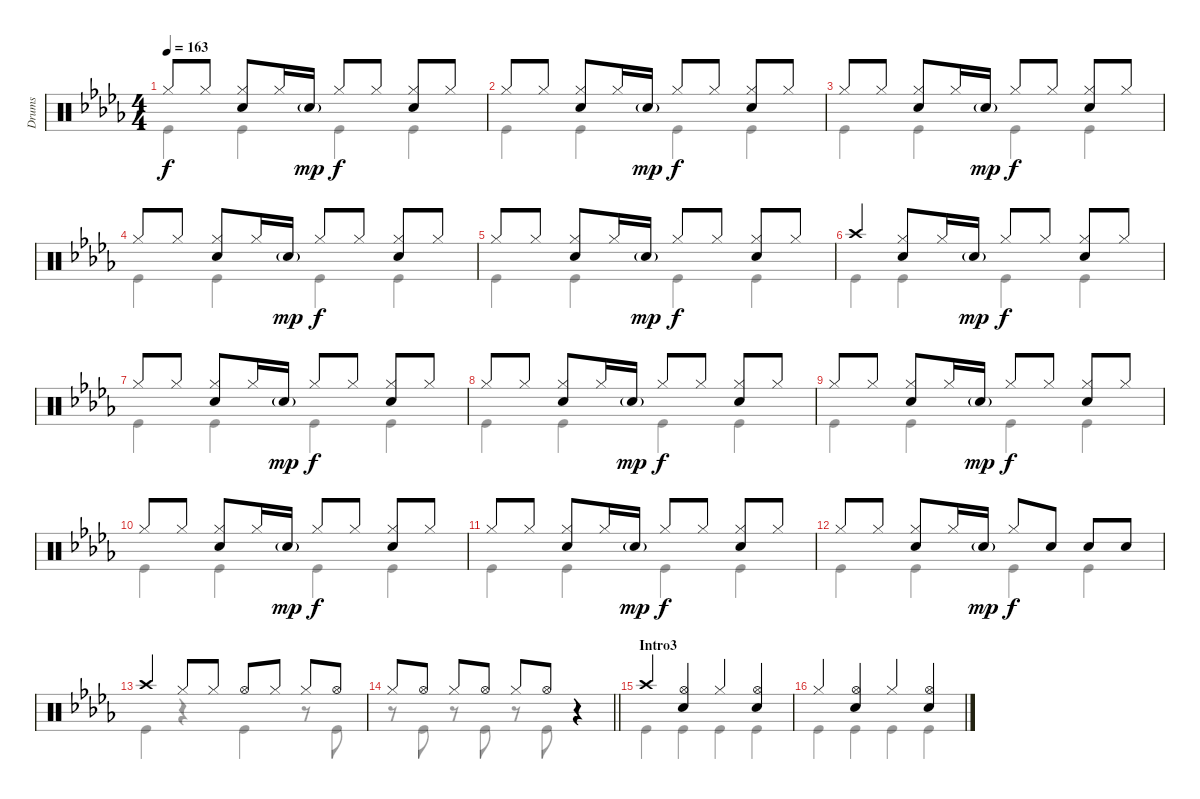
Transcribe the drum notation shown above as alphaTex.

\track ("Drums" "Drums") {instrument percussion}
\staff {score}
\articulation defaults
\voice
\ts (4 4)
\tempo 163
\clef neutral
\ks db "Hi-Hat (closed)".8{dy f} "Hi-Hat (closed)".8
("Hi-Hat (closed)" "Snare (hit) 2").8 "Hi-Hat (closed)".16 "Snare (hit) 2"{g}.16{dy mp} "Hi-Hat (closed)".8{dy f} "Hi-Hat (closed)".8 ("Hi-Hat (closed)" "Snare (hit) 2").8 "Hi-Hat (closed)".8 |
"Hi-Hat (closed)".8 "Hi-Hat (closed)".8 ("Hi-Hat (closed)" "Snare (hit) 2").8 "Hi-Hat (closed)".16 "Snare (hit) 2"{g}.16{dy mp} "Hi-Hat (closed)".8{dy f} "Hi-Hat (closed)".8 ("Hi-Hat (closed)" "Snare (hit) 2").8 "Hi-Hat (closed)".8 |
"Hi-Hat (closed)".8 "Hi-Hat (closed)".8 ("Hi-Hat (closed)" "Snare (hit) 2").8 "Hi-Hat (closed)".16 "Snare (hit) 2"{g}.16{dy mp} "Hi-Hat (closed)".8{dy f} "Hi-Hat (closed)".8 ("Hi-Hat (closed)" "Snare (hit) 2").8 "Hi-Hat (closed)".8 |
"Hi-Hat (closed)".8 "Hi-Hat (closed)".8 ("Hi-Hat (closed)" "Snare (hit) 2").8 "Hi-Hat (closed)".16 "Snare (hit) 2"{g}.16{dy mp} "Hi-Hat (closed)".8{dy f} "Hi-Hat (closed)".8 ("Hi-Hat (closed)" "Snare (hit) 2").8 "Hi-Hat (closed)".8 |
"Hi-Hat (closed)".8 "Hi-Hat (closed)".8 ("Hi-Hat (closed)" "Snare (hit) 2").8 "Hi-Hat (closed)".16 "Snare (hit) 2"{g}.16{dy mp} "Hi-Hat (closed)".8{dy f} "Hi-Hat (closed)".8 ("Hi-Hat (closed)" "Snare (hit) 2").8 "Hi-Hat (closed)".8 |
"Crash high (hit)".4 ("Hi-Hat (closed)" "Snare (hit) 2").8 "Hi-Hat (closed)".16 "Snare (hit) 2"{g}.16{dy mp} "Hi-Hat (closed)".8{dy f} "Hi-Hat (closed)".8 ("Hi-Hat (closed)" "Snare (hit) 2").8 "Hi-Hat (closed)".8 |
"Hi-Hat (closed)".8 "Hi-Hat (closed)".8 ("Hi-Hat (closed)" "Snare (hit) 2").8 "Hi-Hat (closed)".16 "Snare (hit) 2"{g}.16{dy mp} "Hi-Hat (closed)".8{dy f} "Hi-Hat (closed)".8 ("Hi-Hat (closed)" "Snare (hit) 2").8 "Hi-Hat (closed)".8 |
"Hi-Hat (closed)".8 "Hi-Hat (closed)".8 ("Hi-Hat (closed)" "Snare (hit) 2").8 "Hi-Hat (closed)".16 "Snare (hit) 2"{g}.16{dy mp} "Hi-Hat (closed)".8{dy f} "Hi-Hat (closed)".8 ("Hi-Hat (closed)" "Snare (hit) 2").8 "Hi-Hat (closed)".8 |
"Hi-Hat (closed)".8 "Hi-Hat (closed)".8 ("Hi-Hat (closed)" "Snare (hit) 2").8 "Hi-Hat (closed)".16 "Snare (hit) 2"{g}.16{dy mp} "Hi-Hat (closed)".8{dy f} "Hi-Hat (closed)".8 ("Hi-Hat (closed)" "Snare (hit) 2").8 "Hi-Hat (closed)".8 |
"Hi-Hat (closed)".8 "Hi-Hat (closed)".8 ("Hi-Hat (closed)" "Snare (hit) 2").8 "Hi-Hat (closed)".16 "Snare (hit) 2"{g}.16{dy mp} "Hi-Hat (closed)".8{dy f} "Hi-Hat (closed)".8 ("Hi-Hat (closed)" "Snare (hit) 2").8 "Hi-Hat (closed)".8 |
"Hi-Hat (closed)".8 "Hi-Hat (closed)".8 ("Hi-Hat (closed)" "Snare (hit) 2").8 "Hi-Hat (closed)".16 "Snare (hit) 2"{g}.16{dy mp} "Hi-Hat (closed)".8{dy f} "Hi-Hat (closed)".8 ("Hi-Hat (closed)" "Snare (hit) 2").8 "Hi-Hat (closed)".8 |
"Hi-Hat (closed)".8 "Hi-Hat (closed)".8 ("Hi-Hat (closed)" "Snare (hit) 2").8 "Hi-Hat (closed)".16 "Snare (hit) 2"{g}.16{dy mp} "Hi-Hat (closed)".8{dy f} "Snare (hit) 2".8 "Snare (hit) 2".8 "Snare (hit) 2".8 |
"Crash high (hit)".4 "Hi-Hat (closed)".8 "Hi-Hat (closed)".8 "Hi-Hat (open)".8 "Hi-Hat (closed)".8 "Hi-Hat (closed)".8 "Hi-Hat (open)".8 |
\barLineRight lightlight "Hi-Hat (closed)".8 "Hi-Hat (open)".8 "Hi-Hat (closed)".8 "Hi-Hat (open)".8 "Hi-Hat (closed)".8 "Hi-Hat (open)".8
r.4 |
\section ("" "Intro3")
"Crash high (hit)".4 ("Hi-Hat (open)" "Snare (hit) 2").4 "Hi-Hat (closed)".4 ("Hi-Hat (open)" "Snare (hit) 2").4 |
"Hi-Hat (closed)".4 ("Hi-Hat (open)" "Snare (hit) 2").4 "Hi-Hat (closed)".4 ("Hi-Hat (open)" "Snare (hit) 2").4
\voice
\clef neutral
\ottava regular
\simile none
\ks db "Kick (hit)".4{dy f} "Kick (hit)".4 "Kick (hit)".4 "Kick (hit)".4
|
"Kick (hit)".4 "Kick (hit)".4 "Kick (hit)".4 "Kick (hit)".4 |
"Kick (hit)".4 "Kick (hit)".4 "Kick (hit)".4 "Kick (hit)".4 |
"Kick (hit)".4 "Kick (hit)".4 "Kick (hit)".4 "Kick (hit)".4 |
"Kick (hit)".4 "Kick (hit)".4 "Kick (hit)".4 "Kick (hit)".4 |
"Kick (hit)".4 "Kick (hit)".4 "Kick (hit)".4 "Kick (hit)".4 |
"Kick (hit)".4 "Kick (hit)".4 "Kick (hit)".4 "Kick (hit)".4 |
"Kick (hit)".4 "Kick (hit)".4 "Kick (hit)".4 "Kick (hit)".4 |
"Kick (hit)".4 "Kick (hit)".4 "Kick (hit)".4 "Kick (hit)".4 |
"Kick (hit)".4 "Kick (hit)".4 "Kick (hit)".4 "Kick (hit)".4 |
"Kick (hit)".4 "Kick (hit)".4 "Kick (hit)".4 "Kick (hit)".4 |
"Kick (hit)".4 "Kick (hit)".4 "Kick (hit)".4 "Kick (hit)".4 |
"Kick (hit)".4 r.4 "Kick (hit)".4 r.8 "Kick (hit)".8 |
\barLineRight lightlight
r.8 "Kick (hit)".8 r.8 "Kick (hit)".8 r.8 "Kick (hit)".8 r.4 |
"Kick (hit)".4 "Kick (hit)".4 "Kick (hit)".4 "Kick (hit)".4 |
"Kick (hit)".4 "Kick (hit)".4 "Kick (hit)".4 "Kick (hit)".4
